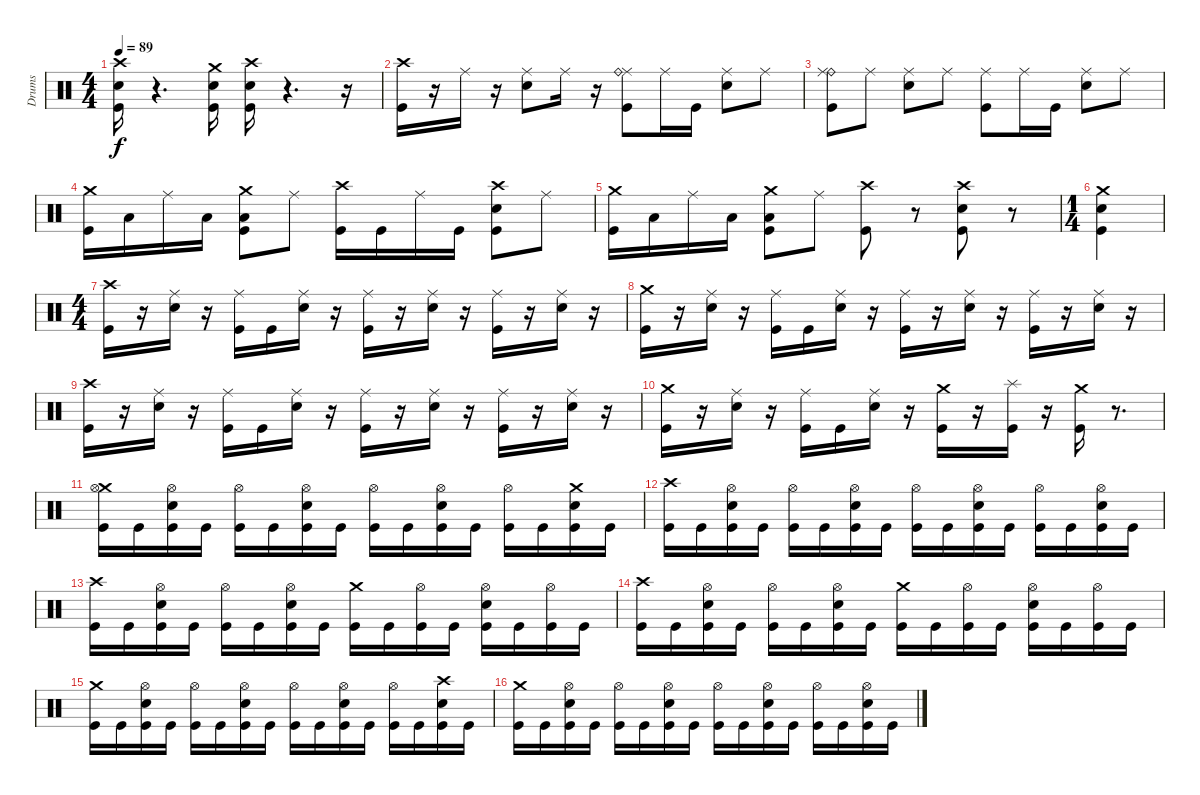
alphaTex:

\track ("Drums" "Drums") {instrument percussion}
\staff {score}
\articulation defaults
\ts (4 4)
\tempo 89
\clef neutral
\ks c
("Crash high (hit)" "Snare (hit) 2" "Kick (hit)").16{dy f} r.4{d} ("Crash medium (hit)" "Snare (hit) 2" "Kick (hit)").16 ("Kick (hit)" "Snare (hit) 2" "Crash high (hit)").16 r.4{d} r.16 |
("Crash high (hit)" "Kick (hit)").16 r.16 "Ride (middle)".16 r.16 ("Ride (middle)" "Snare (hit) 2").8 "Ride (middle)".16 r.16 ("Ride (middle)" "Ride (bell)" "Kick (hit)").8 "Ride (middle)".16 "Kick (hit)".16 ("Ride (middle)" "Snare (hit) 2").8 "Ride (middle)".8 |
("Ride (bell)" "Ride (middle)" "Kick (hit)").8 "Ride (middle)".8 ("Snare (hit) 2" "Ride (middle)").8 "Ride (middle)".8 ("Ride (middle)" "Kick (hit)").8 "Ride (middle)".16 "Kick (hit)".16 ("Ride (middle)" "Snare (hit) 2").8 "Ride (middle)".8 |
("Kick (hit)" "Crash medium (hit)").16{volume 16 balance 8} "Low Tom (hit)".16 "Ride (middle)".16 "Low Floor Tom (hit)".16 ("Kick (hit)" "Crash medium (hit)" "Low Floor Tom (hit)").8 "Ride (middle)".8 ("Kick (hit)" "Crash high (hit)").16 "Kick (hit)".16 "Ride (middle)".16 "Kick (hit)".16 ("Crash high (hit)" "Electric Snare (hit)" "Kick (hit)").8 "Ride (middle)".8 |
("Kick (hit)" "Crash medium (hit)").16 "Low Tom (hit)".16 "Ride (middle)".16 "Low Floor Tom (hit)".16 ("Kick (hit)" "Crash medium (hit)" "Low Floor Tom (hit)").8 "Ride (middle)".8 ("Kick (hit)" "Crash high (hit)").8 r.8 ("Crash high (hit)" "Electric Snare (hit)" "Kick (hit)").8 r.8 |
\ts (1 4)
("Crash medium (hit)" "Snare (hit) 2" "Kick (hit)").4 |
\ts (4 4)
("Kick (hit)" "Crash high (hit)").16 r.16 ("Ride (middle)" "Snare (hit) 2").16 r.16 ("Ride (middle)" "Kick (hit)").16 "Kick (hit)".16 ("Ride (middle)" "Snare (hit) 2").16 r.16 ("Ride (middle)" "Kick (hit)").16 r.16 ("Ride (middle)" "Snare (hit) 2").16 r.16 ("Ride (middle)" "Kick (hit)").16 r.16 ("Ride (middle)" "Snare (hit) 2").16 r.16 |
("Crash medium (hit)" "Kick (hit)").16 r.16 ("Ride (middle)" "Snare (hit) 2").16 r.16 ("Ride (middle)" "Kick (hit)").16 "Kick (hit)".16 ("Ride (middle)" "Snare (hit) 2").16 r.16 ("Ride (middle)" "Kick (hit)").16 r.16 ("Ride (middle)" "Snare (hit) 2").16 r.16 ("Ride (middle)" "Kick (hit)").16 r.16 ("Ride (middle)" "Snare (hit) 2").16 r.16 |
("Crash high (hit)" "Kick (hit)").16 r.16 ("Ride (middle)" "Snare (hit) 2").16 r.16 ("Ride (middle)" "Kick (hit)").16 "Kick (hit)".16 ("Ride (middle)" "Snare (hit) 2").16 r.16 ("Ride (middle)" "Kick (hit)").16 r.16 ("Ride (middle)" "Snare (hit) 2").16 r.16 ("Ride (middle)" "Kick (hit)").16 r.16 ("Ride (middle)" "Snare (hit) 2").16 r.16 |
("Crash medium (hit)" "Kick (hit)").16 r.16 ("Ride (middle)" "Snare (hit) 2").16 r.16 ("Ride (middle)" "Kick (hit)").16 "Kick (hit)".16 ("Ride (middle)" "Snare (hit) 2").16 r.16 ("Crash medium (hit)" "Kick (hit)").16 r.16 ("Splash (hit)" "Kick (hit)").16 r.16 ("Crash medium (hit)" "Kick (hit)").16 r.8{d} |
("Crash medium (hit)" "Hi-Hat (open)" "Kick (hit)").16{volume 16 balance 8} "Kick (hit)".16 ("Hi-Hat (open)" "Kick (hit)" "Snare (hit) 2").16 "Kick (hit)".16 ("Hi-Hat (open)" "Kick (hit)").16 "Kick (hit)".16 ("Snare (hit) 2" "Hi-Hat (open)" "Kick (hit)").16 "Kick (hit)".16 ("Hi-Hat (open)" "Kick (hit)").16{volume 16 balance 8} "Kick (hit)".16 ("Snare (hit) 2" "Hi-Hat (open)" "Kick (hit)").16 "Kick (hit)".16 ("Hi-Hat (open)" "Kick (hit)").16 "Kick (hit)".16 ("Crash medium (hit)" "Electric Snare (hit)" "Kick (hit)").16 "Kick (hit)".16 |
("Kick (hit)" "Crash high (hit)").16 "Kick (hit)".16 ("Hi-Hat (open)" "Snare (hit) 2" "Kick (hit)").16 "Kick (hit)".16 ("Hi-Hat (open)" "Kick (hit)").16 "Kick (hit)".16 ("Snare (hit) 2" "Hi-Hat (open)" "Kick (hit)").16 "Kick (hit)".16 ("Hi-Hat (open)" "Kick (hit)").16 "Kick (hit)".16 ("Snare (hit) 2" "Hi-Hat (open)" "Kick (hit)").16 "Kick (hit)".16 ("Hi-Hat (open)" "Kick (hit)").16 "Kick (hit)".16 ("Snare (hit) 2" "Hi-Hat (open)" "Kick (hit)").16 "Kick (hit)".16 |
("Kick (hit)" "Crash high (hit)").16 "Kick (hit)".16 ("Hi-Hat (open)" "Snare (hit) 2" "Kick (hit)").16 "Kick (hit)".16{volume 16 balance 8} ("Hi-Hat (open)" "Kick (hit)").16 "Kick (hit)".16 ("Snare (hit) 2" "Hi-Hat (open)" "Kick (hit)").16 "Kick (hit)".16 ("Crash medium (hit)" "Kick (hit)").16 "Kick (hit)".16 ("Hi-Hat (open)" "Kick (hit)").16 "Kick (hit)".16 ("Electric Snare (hit)" "Hi-Hat (open)" "Kick (hit)").16 "Kick (hit)".16 ("Hi-Hat (open)" "Kick (hit)").16 "Kick (hit)".16 |
("Kick (hit)" "Crash high (hit)").16 "Kick (hit)".16 ("Hi-Hat (open)" "Snare (hit) 2" "Kick (hit)").16 "Kick (hit)".16 ("Hi-Hat (open)" "Kick (hit)").16 "Kick (hit)".16 ("Snare (hit) 2" "Hi-Hat (open)" "Kick (hit)").16 "Kick (hit)".16 ("Crash medium (hit)" "Kick (hit)").16 "Kick (hit)".16 ("Hi-Hat (open)" "Kick (hit)").16 "Kick (hit)".16 ("Electric Snare (hit)" "Hi-Hat (open)" "Kick (hit)").16 "Kick (hit)".16 ("Hi-Hat (open)" "Kick (hit)").16 "Kick (hit)".16 |
("Crash medium (hit)" "Kick (hit)").16{volume 16 balance 8} "Kick (hit)".16 ("Hi-Hat (open)" "Snare (hit) 2" "Kick (hit)").16 "Kick (hit)".16 ("Hi-Hat (open)" "Kick (hit)").16 "Kick (hit)".16 ("Snare (hit) 2" "Hi-Hat (open)" "Kick (hit)").16 "Kick (hit)".16 ("Hi-Hat (open)" "Kick (hit)").16 "Kick (hit)".16 ("Snare (hit) 2" "Hi-Hat (open)" "Kick (hit)").16 "Kick (hit)".16 ("Hi-Hat (open)" "Kick (hit)").16 "Kick (hit)".16{volume 16 balance 8} ("Snare (hit) 2" "Crash high (hit)" "Kick (hit)").16 "Kick (hit)".16 |
("Crash medium (hit)" "Kick (hit)").16 "Kick (hit)".16 ("Snare (hit) 2" "Hi-Hat (open)" "Kick (hit)").16 "Kick (hit)".16 ("Hi-Hat (open)" "Kick (hit)").16 "Kick (hit)".16 ("Snare (hit) 2" "Hi-Hat (open)" "Kick (hit)").16 "Kick (hit)".16 ("Hi-Hat (open)" "Kick (hit)").16 "Kick (hit)".16 ("Snare (hit) 2" "Hi-Hat (open)" "Kick (hit)").16 "Kick (hit)".16 ("Hi-Hat (open)" "Kick (hit)").16 "Kick (hit)".16 ("Snare (hit) 2" "Hi-Hat (open)" "Kick (hit)").16 "Kick (hit)".16
